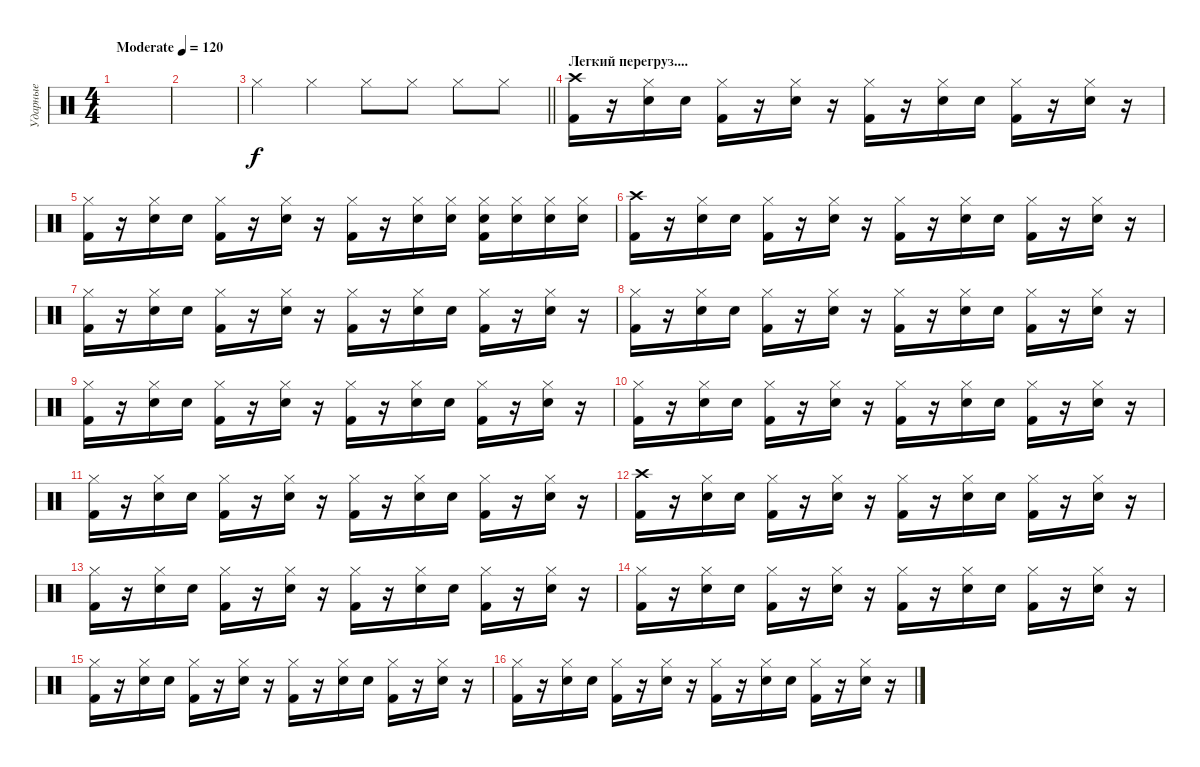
\track ("Ударные" "Ударные") {instrument percussion}
\staff {score}
\articulation defaults
\ts (4 4)
\tempo (120 "Moderate")
\clef neutral
\ks c
|
|
\barLineRight lightlight "Hi-Hat (closed)".4 "Hi-Hat (closed)".4 "Hi-Hat (closed)".8 "Hi-Hat (closed)".8 "Hi-Hat (closed)".8 "Hi-Hat (closed)".8
|
\section ("" "Легкий перегруз....")
("Crash high (hit)" "Kick (hit) 2").16 r.16 ("Hi-Hat (closed)" "Electric Snare (hit)").16 "Electric Snare (hit)".16 ("Hi-Hat (closed)" "Kick (hit) 2").16 r.16 ("Hi-Hat (closed)" "Electric Snare (hit)").16 r.16 ("Hi-Hat (closed)" "Kick (hit) 2").16 r.16 ("Hi-Hat (closed)" "Electric Snare (hit)").16 "Electric Snare (hit)".16 ("Hi-Hat (closed)" "Kick (hit) 2").16 r.16 ("Hi-Hat (closed)" "Electric Snare (hit)").16 r.16 |
("Hi-Hat (closed)" "Kick (hit) 2").16 r.16 ("Hi-Hat (closed)" "Electric Snare (hit)").16 "Electric Snare (hit)".16 ("Hi-Hat (closed)" "Kick (hit) 2").16 r.16 ("Hi-Hat (closed)" "Electric Snare (hit)").16 r.16 ("Hi-Hat (closed)" "Kick (hit) 2").16 r.16 ("Hi-Hat (closed)" "Electric Snare (hit)").16 ("Hi-Hat (closed)" "Electric Snare (hit)").16 ("Hi-Hat (closed)" "Electric Snare (hit)" "Kick (hit) 2").16 ("Hi-Hat (closed)" "Electric Snare (hit)").16 ("Hi-Hat (closed)" "Electric Snare (hit)").16 ("Hi-Hat (closed)" "Electric Snare (hit)").16 |
("Crash high (hit)" "Kick (hit) 2").16 r.16 ("Hi-Hat (closed)" "Electric Snare (hit)").16 "Electric Snare (hit)".16 ("Hi-Hat (closed)" "Kick (hit) 2").16 r.16 ("Hi-Hat (closed)" "Electric Snare (hit)").16 r.16 ("Hi-Hat (closed)" "Kick (hit) 2").16 r.16 ("Hi-Hat (closed)" "Electric Snare (hit)").16 "Electric Snare (hit)".16 ("Hi-Hat (closed)" "Kick (hit) 2").16 r.16 ("Hi-Hat (closed)" "Electric Snare (hit)").16 r.16 |
("Hi-Hat (closed)" "Kick (hit) 2").16 r.16 ("Hi-Hat (closed)" "Electric Snare (hit)").16 "Electric Snare (hit)".16 ("Hi-Hat (closed)" "Kick (hit) 2").16 r.16 ("Hi-Hat (closed)" "Electric Snare (hit)").16 r.16 ("Hi-Hat (closed)" "Kick (hit) 2").16 r.16 ("Hi-Hat (closed)" "Electric Snare (hit)").16 "Electric Snare (hit)".16 ("Hi-Hat (closed)" "Kick (hit) 2").16 r.16 ("Hi-Hat (closed)" "Electric Snare (hit)").16 r.16 |
("Hi-Hat (closed)" "Kick (hit) 2").16 r.16 ("Hi-Hat (closed)" "Electric Snare (hit)").16 "Electric Snare (hit)".16 ("Hi-Hat (closed)" "Kick (hit) 2").16 r.16 ("Hi-Hat (closed)" "Electric Snare (hit)").16 r.16 ("Hi-Hat (closed)" "Kick (hit) 2").16 r.16 ("Hi-Hat (closed)" "Electric Snare (hit)").16 "Electric Snare (hit)".16 ("Hi-Hat (closed)" "Kick (hit) 2").16 r.16 ("Hi-Hat (closed)" "Electric Snare (hit)").16 r.16 |
("Hi-Hat (closed)" "Kick (hit) 2").16 r.16 ("Hi-Hat (closed)" "Electric Snare (hit)").16 "Electric Snare (hit)".16 ("Hi-Hat (closed)" "Kick (hit) 2").16 r.16 ("Hi-Hat (closed)" "Electric Snare (hit)").16 r.16 ("Hi-Hat (closed)" "Kick (hit) 2").16 r.16 ("Hi-Hat (closed)" "Electric Snare (hit)").16 "Electric Snare (hit)".16 ("Hi-Hat (closed)" "Kick (hit) 2").16 r.16 ("Hi-Hat (closed)" "Electric Snare (hit)").16 r.16 |
("Hi-Hat (closed)" "Kick (hit) 2").16 r.16 ("Hi-Hat (closed)" "Electric Snare (hit)").16 "Electric Snare (hit)".16 ("Hi-Hat (closed)" "Kick (hit) 2").16 r.16 ("Hi-Hat (closed)" "Electric Snare (hit)").16 r.16 ("Hi-Hat (closed)" "Kick (hit) 2").16 r.16 ("Hi-Hat (closed)" "Electric Snare (hit)").16 "Electric Snare (hit)".16 ("Hi-Hat (closed)" "Kick (hit) 2").16 r.16 ("Hi-Hat (closed)" "Electric Snare (hit)").16 r.16 |
("Hi-Hat (closed)" "Kick (hit) 2").16 r.16 ("Hi-Hat (closed)" "Electric Snare (hit)").16 "Electric Snare (hit)".16 ("Hi-Hat (closed)" "Kick (hit) 2").16 r.16 ("Hi-Hat (closed)" "Electric Snare (hit)").16 r.16 ("Hi-Hat (closed)" "Kick (hit) 2").16 r.16 ("Hi-Hat (closed)" "Electric Snare (hit)").16 "Electric Snare (hit)".16 ("Hi-Hat (closed)" "Kick (hit) 2").16 r.16 ("Hi-Hat (closed)" "Electric Snare (hit)").16 r.16 |
("Crash high (hit)" "Kick (hit) 2").16 r.16 ("Hi-Hat (closed)" "Electric Snare (hit)").16 "Electric Snare (hit)".16 ("Hi-Hat (closed)" "Kick (hit) 2").16 r.16 ("Hi-Hat (closed)" "Electric Snare (hit)").16 r.16 ("Hi-Hat (closed)" "Kick (hit) 2").16 r.16 ("Hi-Hat (closed)" "Electric Snare (hit)").16 "Electric Snare (hit)".16 ("Hi-Hat (closed)" "Kick (hit) 2").16 r.16 ("Hi-Hat (closed)" "Electric Snare (hit)").16 r.16 |
("Hi-Hat (closed)" "Kick (hit) 2").16 r.16 ("Hi-Hat (closed)" "Electric Snare (hit)").16 "Electric Snare (hit)".16 ("Hi-Hat (closed)" "Kick (hit) 2").16 r.16 ("Hi-Hat (closed)" "Electric Snare (hit)").16 r.16 ("Hi-Hat (closed)" "Kick (hit) 2").16 r.16 ("Hi-Hat (closed)" "Electric Snare (hit)").16 "Electric Snare (hit)".16 ("Hi-Hat (closed)" "Kick (hit) 2").16 r.16 ("Hi-Hat (closed)" "Electric Snare (hit)").16 r.16 |
("Hi-Hat (closed)" "Kick (hit) 2").16 r.16 ("Hi-Hat (closed)" "Electric Snare (hit)").16 "Electric Snare (hit)".16 ("Hi-Hat (closed)" "Kick (hit) 2").16 r.16 ("Hi-Hat (closed)" "Electric Snare (hit)").16 r.16 ("Hi-Hat (closed)" "Kick (hit) 2").16 r.16 ("Hi-Hat (closed)" "Electric Snare (hit)").16 "Electric Snare (hit)".16 ("Hi-Hat (closed)" "Kick (hit) 2").16 r.16 ("Hi-Hat (closed)" "Electric Snare (hit)").16 r.16 |
("Hi-Hat (closed)" "Kick (hit) 2").16 r.16 ("Hi-Hat (closed)" "Electric Snare (hit)").16 "Electric Snare (hit)".16 ("Hi-Hat (closed)" "Kick (hit) 2").16 r.16 ("Hi-Hat (closed)" "Electric Snare (hit)").16 r.16 ("Hi-Hat (closed)" "Kick (hit) 2").16 r.16 ("Hi-Hat (closed)" "Electric Snare (hit)").16 "Electric Snare (hit)".16 ("Hi-Hat (closed)" "Kick (hit) 2").16 r.16 ("Hi-Hat (closed)" "Electric Snare (hit)").16 r.16 |
("Hi-Hat (closed)" "Kick (hit) 2").16 r.16 ("Hi-Hat (closed)" "Electric Snare (hit)").16 "Electric Snare (hit)".16 ("Hi-Hat (closed)" "Kick (hit) 2").16 r.16 ("Hi-Hat (closed)" "Electric Snare (hit)").16 r.16 ("Hi-Hat (closed)" "Kick (hit) 2").16 r.16 ("Hi-Hat (closed)" "Electric Snare (hit)").16 "Electric Snare (hit)".16 ("Hi-Hat (closed)" "Kick (hit) 2").16 r.16 ("Hi-Hat (closed)" "Electric Snare (hit)").16 r.16
